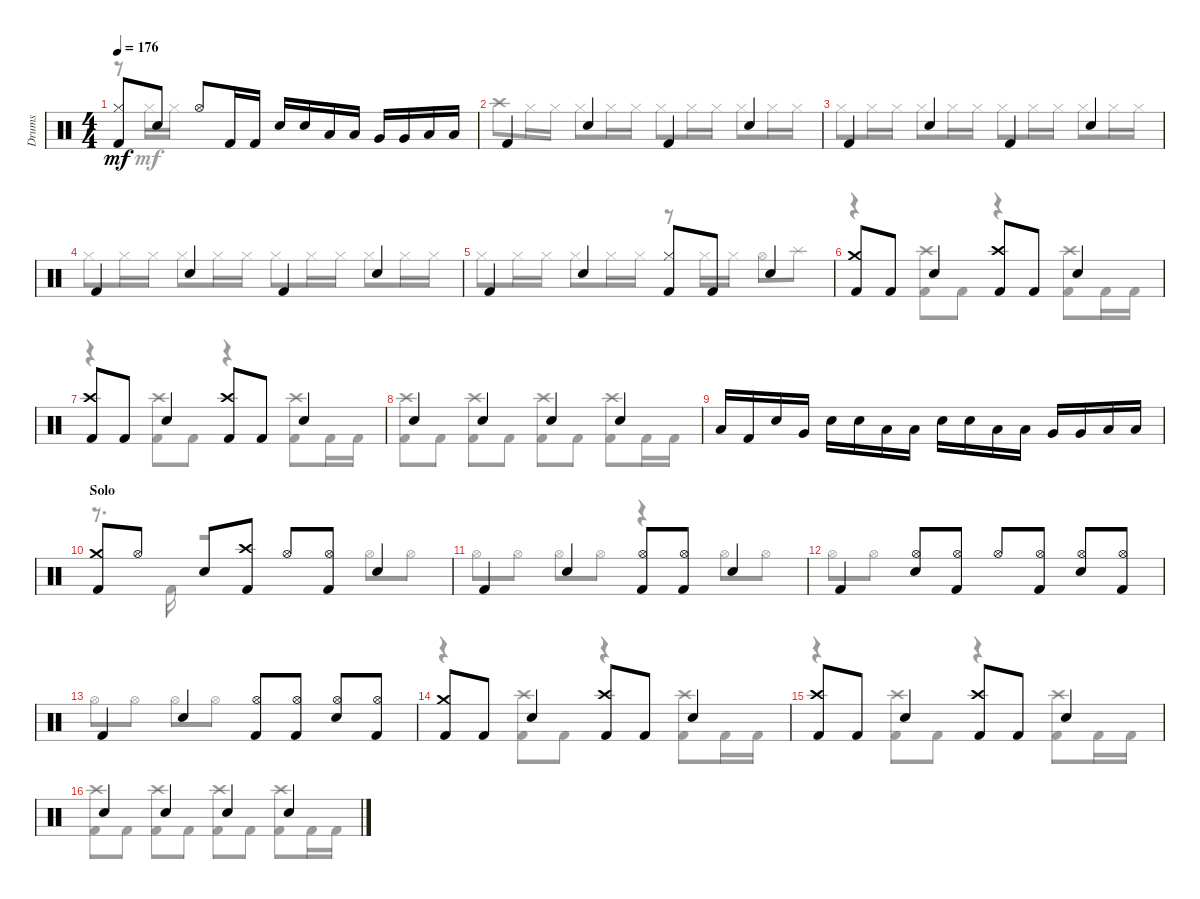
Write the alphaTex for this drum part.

\track ("Drums" "Drums") {instrument percussion}
\staff {score}
\articulation defaults
\voice
\ts (4 4)
\tempo 176
\clef neutral
\ks aminor
("Hi-Hat (closed)" "Kick (hit) 2").8{dy mf} "Snare (hit) 2".8 "Hi-Hat (open)".8 "Kick (hit) 2".16 "Kick (hit) 2".16 "Snare (hit) 2".16 "Snare (hit) 2".16 "Low Tom (hit)".16 "Low Tom (hit)".16 "Very Low Tom (hit)".16 "Very Low Tom (hit)".16 "Low Floor Tom (hit)".16 "Low Floor Tom (hit)".16 |
"Kick (hit) 2".4 "Snare (hit) 2".4 "Kick (hit) 2".4 "Snare (hit) 2".4 |
"Kick (hit) 2".4 "Snare (hit) 2".4 "Kick (hit) 2".4 "Snare (hit) 2".4 |
"Kick (hit) 2".4 "Snare (hit) 2".4 "Kick (hit) 2".4 "Snare (hit) 2".4 |
"Kick (hit) 2".4 "Snare (hit) 2".4 ("Kick (hit) 2" "Hi-Hat (closed)").8 "Kick (hit) 2".8 "Snare (hit) 2".4 |
("Kick (hit) 2" "Crash medium (hit)").8 "Kick (hit) 2".8 "Snare (hit) 2".4 ("Crash high (hit)" "Kick (hit) 2").8 "Kick (hit) 2".8 "Snare (hit) 2".4 |
("Crash high (hit)" "Kick (hit) 2").8 "Kick (hit) 2".8 "Snare (hit) 2".4 ("Kick (hit) 2" "Crash high (hit)").8 "Kick (hit) 2".8 "Snare (hit) 2".4 |
"Snare (hit) 2".4 "Snare (hit) 2".4 "Snare (hit) 2".4 "Snare (hit) 2".4 |
"Low Tom (hit)".16 "Kick (hit) 2".16 "Snare (hit) 2".16 "Very Low Tom (hit)".16 "Snare (hit) 2".16 "Snare (hit) 2".16 "Low Floor Tom (hit)".16 "Low Floor Tom (hit)".16 "Snare (hit) 2".16 "Snare (hit) 2".16 "Low Tom (hit)".16 "Low Tom (hit)".16 "Very Low Tom (hit)".16 "Very Low Tom (hit)".16 "Low Floor Tom (hit)".16 "Low Floor Tom (hit)".16 |
\section ("" "Solo")
("Kick (hit) 2" "Crash medium (hit)").8 "Hi-Hat (open)".8 "Snare (hit) 2".8 ("Kick (hit) 2" "Crash high (hit)").8 "Hi-Hat (open)".8 ("Hi-Hat (open)" "Kick (hit) 2").8 "Snare (hit) 2".4 |
"Kick (hit) 2".4 "Snare (hit) 2".4 ("Kick (hit) 2" "Hi-Hat (open)").8 ("Hi-Hat (open)" "Kick (hit) 2").8 "Snare (hit) 2".4 |
"Kick (hit) 2".4 ("Hi-Hat (open)" "Snare (hit) 2").8 ("Hi-Hat (open)" "Kick (hit) 2").8 "Hi-Hat (open)".8 ("Kick (hit) 2" "Hi-Hat (open)").8 ("Hi-Hat (open)" "Snare (hit) 2").8 ("Hi-Hat (open)" "Kick (hit) 2").8 |
"Kick (hit) 2".4 "Snare (hit) 2".4 ("Hi-Hat (open)" "Kick (hit) 2").8 ("Kick (hit) 2" "Hi-Hat (open)").8 ("Snare (hit) 2" "Hi-Hat (open)").8 ("Hi-Hat (open)" "Kick (hit) 2").8 |
("Crash medium (hit)" "Kick (hit) 2").8 "Kick (hit) 2".8 "Snare (hit) 2".4 ("Crash high (hit)" "Kick (hit) 2").8 "Kick (hit) 2".8 "Snare (hit) 2".4 |
("Crash high (hit)" "Kick (hit) 2").8 "Kick (hit) 2".8 "Snare (hit) 2".4 ("Kick (hit) 2" "Crash high (hit)").8 "Kick (hit) 2".8 "Snare (hit) 2".4 |
"Snare (hit) 2".4 "Snare (hit) 2".4 "Snare (hit) 2".4 "Snare (hit) 2".4
\voice
\clef neutral
\ottava regular
\simile none
\ks aminor
r.8{dy mf} "Hi-Hat (closed)".16 "Hi-Hat (closed)".16 |
"Crash high (hit)".8 "Hi-Hat (closed)".16 "Hi-Hat (closed)".16 "Hi-Hat (closed)".8 "Hi-Hat (closed)".16 "Hi-Hat (closed)".16 "Hi-Hat (closed)".8 "Hi-Hat (closed)".16 "Hi-Hat (closed)".16 "Hi-Hat (closed)".8 "Hi-Hat (closed)".16 "Hi-Hat (closed)".16 |
"Hi-Hat (closed)".8 "Hi-Hat (closed)".16 "Hi-Hat (closed)".16 "Hi-Hat (closed)".8 "Hi-Hat (closed)".16 "Hi-Hat (closed)".16 "Hi-Hat (closed)".8 "Hi-Hat (closed)".16 "Hi-Hat (closed)".16 "Hi-Hat (closed)".8 "Hi-Hat (closed)".16 "Hi-Hat (closed)".16 |
"Hi-Hat (closed)".8 "Hi-Hat (closed)".16 "Hi-Hat (closed)".16 "Hi-Hat (closed)".8 "Hi-Hat (closed)".16 "Hi-Hat (closed)".16 "Hi-Hat (closed)".8 "Hi-Hat (closed)".16 "Hi-Hat (closed)".16 "Hi-Hat (closed)".8 "Hi-Hat (closed)".16 "Hi-Hat (closed)".16 |
"Hi-Hat (closed)".8 "Hi-Hat (closed)".16 "Hi-Hat (closed)".16 "Hi-Hat (closed)".8 "Hi-Hat (closed)".16 "Hi-Hat (closed)".16 r.8 "Hi-Hat (closed)".16 "Hi-Hat (closed)".16 "Hi-Hat (open)".8 "Splash (hit)".8 |
r.4 ("Crash high (hit)" "Kick (hit) 2").8 "Kick (hit) 2".8 r.4 ("Crash high (hit)" "Kick (hit) 2").8 "Kick (hit) 2".16 "Kick (hit) 2".16 |
r.4 ("Crash high (hit)" "Kick (hit) 2").8 "Kick (hit) 2".8 r.4 ("Kick (hit) 2" "Crash high (hit)").8 "Kick (hit) 2".16 "Kick (hit) 2".16 |
("Kick (hit) 2" "Crash high (hit)").8 "Kick (hit) 2".8 ("Crash high (hit)" "Kick (hit) 2").8 "Kick (hit) 2".8 ("Crash high (hit)" "Kick (hit) 2").8 "Kick (hit) 2".8 ("Crash high (hit)" "Kick (hit) 2").8 "Kick (hit) 2".16 "Kick (hit) 2".16 |
|
r.8{d} "Kick (hit) 2".16 r.2 "Hi-Hat (open)".8 "Hi-Hat (open)".8 |
"Hi-Hat (open)".8 "Hi-Hat (open)".8 "Hi-Hat (open)".8 "Hi-Hat (open)".8 r.4 "Hi-Hat (open)".8 "Hi-Hat (open)".8 |
"Hi-Hat (open)".8 "Hi-Hat (open)".8 |
"Hi-Hat (open)".8 "Hi-Hat (open)".8 "Hi-Hat (open)".8 "Hi-Hat (open)".8 |
r.4 ("Kick (hit) 2" "Crash high (hit)").8 "Kick (hit) 2".8 r.4 ("Crash high (hit)" "Kick (hit) 2").8 "Kick (hit) 2".16 "Kick (hit) 2".16 |
r.4 ("Crash high (hit)" "Kick (hit) 2").8 "Kick (hit) 2".8 r.4 ("Kick (hit) 2" "Crash high (hit)").8 "Kick (hit) 2".16 "Kick (hit) 2".16 |
("Crash high (hit)" "Kick (hit) 2").8 "Kick (hit) 2".8 ("Crash high (hit)" "Kick (hit) 2").8 "Kick (hit) 2".8 ("Kick (hit) 2" "Crash high (hit)").8 "Kick (hit) 2".8 ("Crash high (hit)" "Kick (hit) 2").8 "Kick (hit) 2".16 "Kick (hit) 2".16
